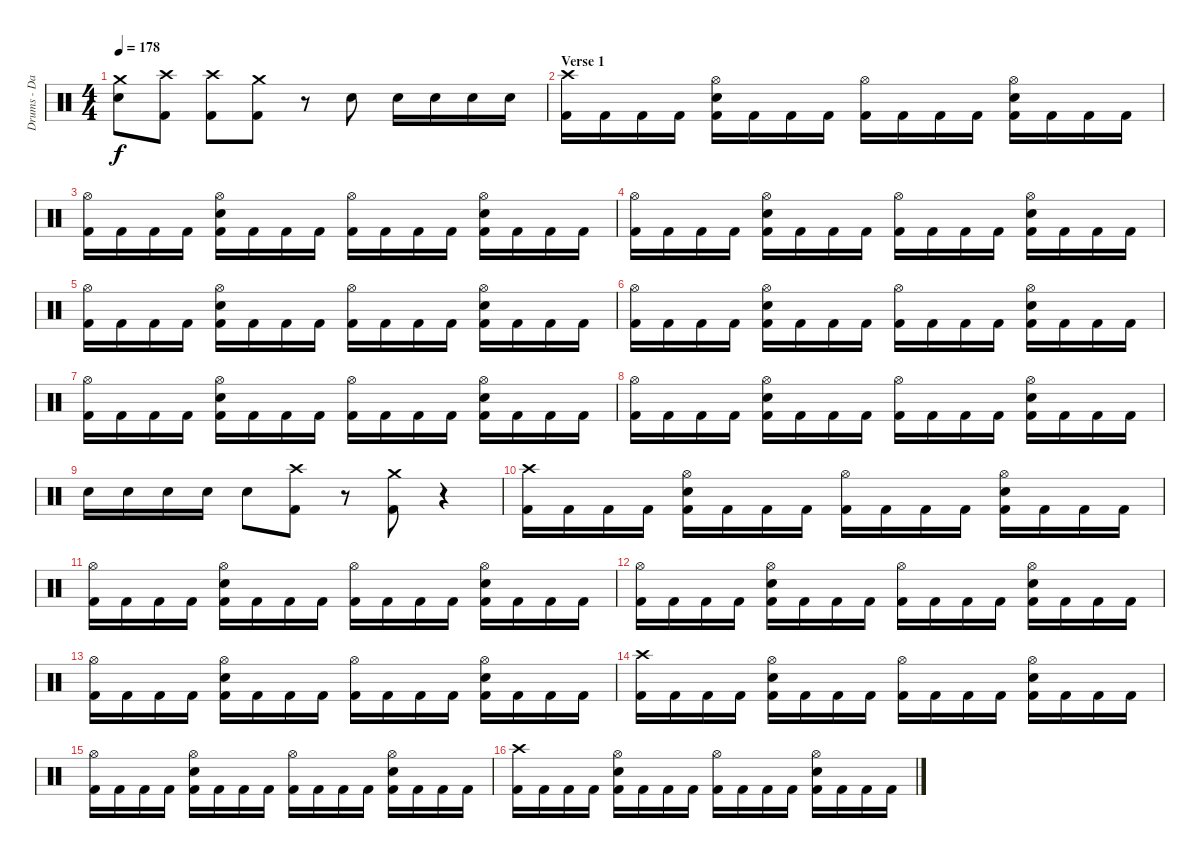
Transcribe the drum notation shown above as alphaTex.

\track ("Drums - Daniel Zimmermann" "Drums - Da") {instrument percussion}
\staff {score}
\articulation defaults
\ts (4 4)
\tempo 178
\clef neutral
\ks c
("Electric Snare (hit)" "Crash medium (hit)").8{dy f} ("Kick (hit) 2" "Crash high (hit)").8 ("Kick (hit) 2" "Crash high (hit)").8 ("Kick (hit) 2" "Crash medium (hit)").8 r.8 "Electric Snare (hit)".8 "Electric Snare (hit)".16 "Electric Snare (hit)".16 "Electric Snare (hit)".16 "Electric Snare (hit)".16 |
\section ("" "Verse 1")
("Kick (hit) 2" "Crash high (hit)").16 "Kick (hit) 2".16 "Kick (hit) 2".16 "Kick (hit) 2".16 ("Kick (hit) 2" "Electric Snare (hit)" "Hi-Hat (open)").16 "Kick (hit) 2".16 "Kick (hit) 2".16 "Kick (hit) 2".16 ("Kick (hit) 2" "Hi-Hat (open)").16 "Kick (hit) 2".16 "Kick (hit) 2".16 "Kick (hit) 2".16 ("Kick (hit) 2" "Electric Snare (hit)" "Hi-Hat (open)").16 "Kick (hit) 2".16 "Kick (hit) 2".16 "Kick (hit) 2".16 |
("Kick (hit) 2" "Hi-Hat (open)").16 "Kick (hit) 2".16 "Kick (hit) 2".16 "Kick (hit) 2".16 ("Kick (hit) 2" "Electric Snare (hit)" "Hi-Hat (open)").16 "Kick (hit) 2".16 "Kick (hit) 2".16 "Kick (hit) 2".16 ("Kick (hit) 2" "Hi-Hat (open)").16 "Kick (hit) 2".16 "Kick (hit) 2".16 "Kick (hit) 2".16 ("Kick (hit) 2" "Electric Snare (hit)" "Hi-Hat (open)").16 "Kick (hit) 2".16 "Kick (hit) 2".16 "Kick (hit) 2".16 |
("Kick (hit) 2" "Hi-Hat (open)").16 "Kick (hit) 2".16 "Kick (hit) 2".16 "Kick (hit) 2".16 ("Kick (hit) 2" "Electric Snare (hit)" "Hi-Hat (open)").16 "Kick (hit) 2".16 "Kick (hit) 2".16 "Kick (hit) 2".16 ("Kick (hit) 2" "Hi-Hat (open)").16 "Kick (hit) 2".16 "Kick (hit) 2".16 "Kick (hit) 2".16 ("Kick (hit) 2" "Electric Snare (hit)" "Hi-Hat (open)").16 "Kick (hit) 2".16 "Kick (hit) 2".16 "Kick (hit) 2".16 |
("Kick (hit) 2" "Hi-Hat (open)").16 "Kick (hit) 2".16 "Kick (hit) 2".16 "Kick (hit) 2".16 ("Kick (hit) 2" "Electric Snare (hit)" "Hi-Hat (open)").16 "Kick (hit) 2".16 "Kick (hit) 2".16 "Kick (hit) 2".16 ("Kick (hit) 2" "Hi-Hat (open)").16 "Kick (hit) 2".16 "Kick (hit) 2".16 "Kick (hit) 2".16 ("Kick (hit) 2" "Electric Snare (hit)" "Hi-Hat (open)").16 "Kick (hit) 2".16 "Kick (hit) 2".16 "Kick (hit) 2".16 |
("Kick (hit) 2" "Hi-Hat (open)").16 "Kick (hit) 2".16 "Kick (hit) 2".16 "Kick (hit) 2".16 ("Kick (hit) 2" "Electric Snare (hit)" "Hi-Hat (open)").16 "Kick (hit) 2".16 "Kick (hit) 2".16 "Kick (hit) 2".16 ("Kick (hit) 2" "Hi-Hat (open)").16 "Kick (hit) 2".16 "Kick (hit) 2".16 "Kick (hit) 2".16 ("Kick (hit) 2" "Electric Snare (hit)" "Hi-Hat (open)").16 "Kick (hit) 2".16 "Kick (hit) 2".16 "Kick (hit) 2".16 |
("Kick (hit) 2" "Hi-Hat (open)").16 "Kick (hit) 2".16 "Kick (hit) 2".16 "Kick (hit) 2".16 ("Kick (hit) 2" "Electric Snare (hit)" "Hi-Hat (open)").16 "Kick (hit) 2".16 "Kick (hit) 2".16 "Kick (hit) 2".16 ("Kick (hit) 2" "Hi-Hat (open)").16 "Kick (hit) 2".16 "Kick (hit) 2".16 "Kick (hit) 2".16 ("Kick (hit) 2" "Electric Snare (hit)" "Hi-Hat (open)").16 "Kick (hit) 2".16 "Kick (hit) 2".16 "Kick (hit) 2".16 |
("Kick (hit) 2" "Hi-Hat (open)").16 "Kick (hit) 2".16 "Kick (hit) 2".16 "Kick (hit) 2".16 ("Kick (hit) 2" "Electric Snare (hit)" "Hi-Hat (open)").16 "Kick (hit) 2".16 "Kick (hit) 2".16 "Kick (hit) 2".16 ("Kick (hit) 2" "Hi-Hat (open)").16 "Kick (hit) 2".16 "Kick (hit) 2".16 "Kick (hit) 2".16 ("Kick (hit) 2" "Electric Snare (hit)" "Hi-Hat (open)").16 "Kick (hit) 2".16 "Kick (hit) 2".16 "Kick (hit) 2".16 |
"Electric Snare (hit)".16 "Electric Snare (hit)".16 "Electric Snare (hit)".16 "Electric Snare (hit)".16 "Electric Snare (hit)".8 ("Kick (hit) 2" "Crash high (hit)").8 r.8 ("Kick (hit) 2" "Crash medium (hit)").8 r.4 |
("Kick (hit) 2" "Crash high (hit)").16 "Kick (hit) 2".16 "Kick (hit) 2".16 "Kick (hit) 2".16 ("Kick (hit) 2" "Electric Snare (hit)" "Hi-Hat (open)").16 "Kick (hit) 2".16 "Kick (hit) 2".16 "Kick (hit) 2".16 ("Kick (hit) 2" "Hi-Hat (open)").16 "Kick (hit) 2".16 "Kick (hit) 2".16 "Kick (hit) 2".16 ("Kick (hit) 2" "Electric Snare (hit)" "Hi-Hat (open)").16 "Kick (hit) 2".16 "Kick (hit) 2".16 "Kick (hit) 2".16 |
("Kick (hit) 2" "Hi-Hat (open)").16 "Kick (hit) 2".16 "Kick (hit) 2".16 "Kick (hit) 2".16 ("Kick (hit) 2" "Electric Snare (hit)" "Hi-Hat (open)").16 "Kick (hit) 2".16 "Kick (hit) 2".16 "Kick (hit) 2".16 ("Kick (hit) 2" "Hi-Hat (open)").16 "Kick (hit) 2".16 "Kick (hit) 2".16 "Kick (hit) 2".16 ("Kick (hit) 2" "Electric Snare (hit)" "Hi-Hat (open)").16 "Kick (hit) 2".16 "Kick (hit) 2".16 "Kick (hit) 2".16 |
("Kick (hit) 2" "Hi-Hat (open)").16 "Kick (hit) 2".16 "Kick (hit) 2".16 "Kick (hit) 2".16 ("Kick (hit) 2" "Electric Snare (hit)" "Hi-Hat (open)").16 "Kick (hit) 2".16 "Kick (hit) 2".16 "Kick (hit) 2".16 ("Kick (hit) 2" "Hi-Hat (open)").16 "Kick (hit) 2".16 "Kick (hit) 2".16 "Kick (hit) 2".16 ("Kick (hit) 2" "Electric Snare (hit)" "Hi-Hat (open)").16 "Kick (hit) 2".16 "Kick (hit) 2".16 "Kick (hit) 2".16 |
("Kick (hit) 2" "Hi-Hat (open)").16 "Kick (hit) 2".16 "Kick (hit) 2".16 "Kick (hit) 2".16 ("Kick (hit) 2" "Electric Snare (hit)" "Hi-Hat (open)").16 "Kick (hit) 2".16 "Kick (hit) 2".16 "Kick (hit) 2".16 ("Kick (hit) 2" "Hi-Hat (open)").16 "Kick (hit) 2".16 "Kick (hit) 2".16 "Kick (hit) 2".16 ("Kick (hit) 2" "Electric Snare (hit)" "Hi-Hat (open)").16 "Kick (hit) 2".16 "Kick (hit) 2".16 "Kick (hit) 2".16 |
("Kick (hit) 2" "Crash high (hit)").16 "Kick (hit) 2".16 "Kick (hit) 2".16 "Kick (hit) 2".16 ("Kick (hit) 2" "Electric Snare (hit)" "Hi-Hat (open)").16 "Kick (hit) 2".16 "Kick (hit) 2".16 "Kick (hit) 2".16 ("Kick (hit) 2" "Hi-Hat (open)").16 "Kick (hit) 2".16 "Kick (hit) 2".16 "Kick (hit) 2".16 ("Kick (hit) 2" "Electric Snare (hit)" "Hi-Hat (open)").16 "Kick (hit) 2".16 "Kick (hit) 2".16 "Kick (hit) 2".16 |
("Kick (hit) 2" "Hi-Hat (open)").16 "Kick (hit) 2".16 "Kick (hit) 2".16 "Kick (hit) 2".16 ("Kick (hit) 2" "Electric Snare (hit)" "Hi-Hat (open)").16 "Kick (hit) 2".16 "Kick (hit) 2".16 "Kick (hit) 2".16 ("Kick (hit) 2" "Hi-Hat (open)").16 "Kick (hit) 2".16 "Kick (hit) 2".16 "Kick (hit) 2".16 ("Kick (hit) 2" "Electric Snare (hit)" "Hi-Hat (open)").16 "Kick (hit) 2".16 "Kick (hit) 2".16 "Kick (hit) 2".16 |
("Kick (hit) 2" "Crash high (hit)").16 "Kick (hit) 2".16 "Kick (hit) 2".16 "Kick (hit) 2".16 ("Kick (hit) 2" "Electric Snare (hit)" "Hi-Hat (open)").16 "Kick (hit) 2".16 "Kick (hit) 2".16 "Kick (hit) 2".16 ("Kick (hit) 2" "Hi-Hat (open)").16 "Kick (hit) 2".16 "Kick (hit) 2".16 "Kick (hit) 2".16 ("Kick (hit) 2" "Electric Snare (hit)" "Hi-Hat (open)").16 "Kick (hit) 2".16 "Kick (hit) 2".16 "Kick (hit) 2".16
